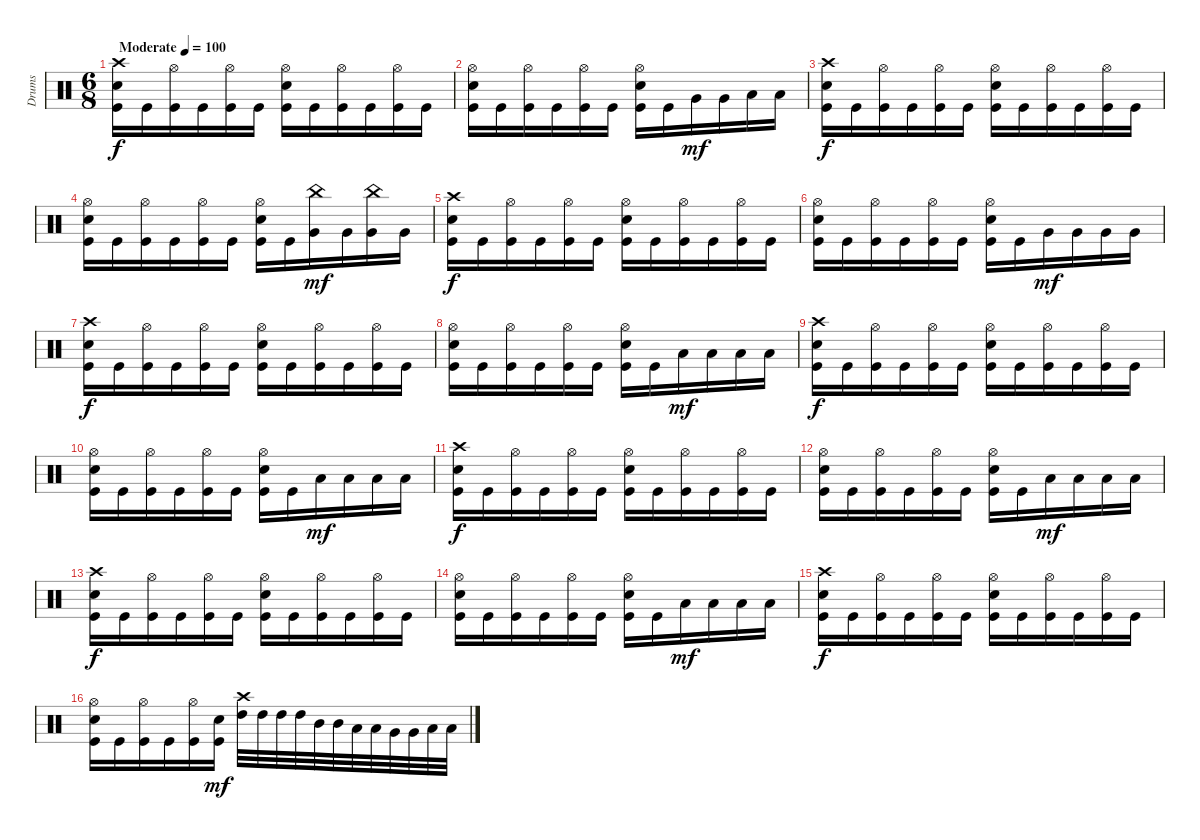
\track ("Drums" "Drums") {instrument percussion}
\staff {score}
\articulation defaults
\ts (6 8)
\tempo (100 "Moderate")
\clef neutral
\ks c
("Crash high (hit)" "Electric Snare (hit)" "Kick (hit)").16{dy f} "Kick (hit)".16 ("Hi-Hat (open)" "Kick (hit)").16 "Kick (hit)".16 ("Hi-Hat (open)" "Kick (hit)").16 "Kick (hit)".16 ("Hi-Hat (open)" "Electric Snare (hit)" "Kick (hit)").16 "Kick (hit)".16 ("Hi-Hat (open)" "Kick (hit)").16 "Kick (hit)".16 ("Hi-Hat (open)" "Kick (hit)").16 "Kick (hit)".16 |
("Hi-Hat (open)" "Electric Snare (hit)" "Kick (hit)").16 "Kick (hit)".16 ("Hi-Hat (open)" "Kick (hit)").16 "Kick (hit)".16 ("Hi-Hat (open)" "Kick (hit)").16 "Kick (hit)".16 ("Hi-Hat (open)" "Electric Snare (hit)" "Kick (hit)").16 "Kick (hit)".16 "Very Low Tom (hit)".16{dy mf} "Very Low Tom (hit)".16 "Low Floor Tom (hit)".16 "Low Floor Tom (hit)".16 |
("Crash high (hit)" "Electric Snare (hit)" "Kick (hit)").16{dy f} "Kick (hit)".16 ("Hi-Hat (open)" "Kick (hit)").16 "Kick (hit)".16 ("Hi-Hat (open)" "Kick (hit)").16 "Kick (hit)".16 ("Hi-Hat (open)" "Electric Snare (hit)" "Kick (hit)").16 "Kick (hit)".16 ("Hi-Hat (open)" "Kick (hit)").16 "Kick (hit)".16 ("Hi-Hat (open)" "Kick (hit)").16 "Kick (hit)".16 |
("Hi-Hat (open)" "Electric Snare (hit)" "Kick (hit)").16 "Kick (hit)".16 ("Hi-Hat (open)" "Kick (hit)").16 "Kick (hit)".16 ("Hi-Hat (open)" "Kick (hit)").16 "Kick (hit)".16 ("Hi-Hat (open)" "Electric Snare (hit)" "Kick (hit)").16 "Kick (hit)".16 ("China (hit)" "Very Low Tom (hit)").16{dy mf} "Very Low Tom (hit)".16 ("China (hit)" "Very Low Tom (hit)").16 "Very Low Tom (hit)".16 |
("Crash high (hit)" "Electric Snare (hit)" "Kick (hit)").16{dy f} "Kick (hit)".16 ("Hi-Hat (open)" "Kick (hit)").16 "Kick (hit)".16 ("Hi-Hat (open)" "Kick (hit)").16 "Kick (hit)".16 ("Hi-Hat (open)" "Electric Snare (hit)" "Kick (hit)").16 "Kick (hit)".16 ("Hi-Hat (open)" "Kick (hit)").16 "Kick (hit)".16 ("Hi-Hat (open)" "Kick (hit)").16 "Kick (hit)".16 |
("Hi-Hat (open)" "Electric Snare (hit)" "Kick (hit)").16 "Kick (hit)".16 ("Hi-Hat (open)" "Kick (hit)").16 "Kick (hit)".16 ("Hi-Hat (open)" "Kick (hit)").16 "Kick (hit)".16 ("Hi-Hat (open)" "Electric Snare (hit)" "Kick (hit)").16 "Kick (hit)".16 "Very Low Tom (hit)".16{dy mf} "Very Low Tom (hit)".16 "Very Low Tom (hit)".16 "Very Low Tom (hit)".16 |
("Crash high (hit)" "Electric Snare (hit)" "Kick (hit)").16{dy f} "Kick (hit)".16 ("Hi-Hat (open)" "Kick (hit)").16 "Kick (hit)".16 ("Hi-Hat (open)" "Kick (hit)").16 "Kick (hit)".16 ("Hi-Hat (open)" "Electric Snare (hit)" "Kick (hit)").16 "Kick (hit)".16 ("Hi-Hat (open)" "Kick (hit)").16 "Kick (hit)".16 ("Hi-Hat (open)" "Kick (hit)").16 "Kick (hit)".16 |
("Hi-Hat (open)" "Electric Snare (hit)" "Kick (hit)").16 "Kick (hit)".16 ("Hi-Hat (open)" "Kick (hit)").16 "Kick (hit)".16 ("Hi-Hat (open)" "Kick (hit)").16 "Kick (hit)".16 ("Hi-Hat (open)" "Electric Snare (hit)" "Kick (hit)").16 "Kick (hit)".16 "Low Floor Tom (hit)".16{dy mf} "Low Floor Tom (hit)".16 "Low Floor Tom (hit)".16 "Low Floor Tom (hit)".16 |
("Crash high (hit)" "Electric Snare (hit)" "Kick (hit)").16{dy f} "Kick (hit)".16 ("Hi-Hat (open)" "Kick (hit)").16 "Kick (hit)".16 ("Hi-Hat (open)" "Kick (hit)").16 "Kick (hit)".16 ("Hi-Hat (open)" "Electric Snare (hit)" "Kick (hit)").16 "Kick (hit)".16 ("Hi-Hat (open)" "Kick (hit)").16 "Kick (hit)".16 ("Hi-Hat (open)" "Kick (hit)").16 "Kick (hit)".16 |
("Hi-Hat (open)" "Electric Snare (hit)" "Kick (hit)").16 "Kick (hit)".16 ("Hi-Hat (open)" "Kick (hit)").16 "Kick (hit)".16 ("Hi-Hat (open)" "Kick (hit)").16 "Kick (hit)".16 ("Hi-Hat (open)" "Electric Snare (hit)" "Kick (hit)").16 "Kick (hit)".16 "Low Floor Tom (hit)".16{dy mf} "Low Floor Tom (hit)".16 "Low Floor Tom (hit)".16 "Low Floor Tom (hit)".16 |
("Crash high (hit)" "Electric Snare (hit)" "Kick (hit)").16{dy f} "Kick (hit)".16 ("Hi-Hat (open)" "Kick (hit)").16 "Kick (hit)".16 ("Hi-Hat (open)" "Kick (hit)").16 "Kick (hit)".16 ("Hi-Hat (open)" "Electric Snare (hit)" "Kick (hit)").16 "Kick (hit)".16 ("Hi-Hat (open)" "Kick (hit)").16 "Kick (hit)".16 ("Hi-Hat (open)" "Kick (hit)").16 "Kick (hit)".16 |
("Hi-Hat (open)" "Electric Snare (hit)" "Kick (hit)").16 "Kick (hit)".16 ("Hi-Hat (open)" "Kick (hit)").16 "Kick (hit)".16 ("Hi-Hat (open)" "Kick (hit)").16 "Kick (hit)".16 ("Hi-Hat (open)" "Electric Snare (hit)" "Kick (hit)").16 "Kick (hit)".16 "Low Floor Tom (hit)".16{dy mf} "Low Floor Tom (hit)".16 "Low Floor Tom (hit)".16 "Low Floor Tom (hit)".16 |
("Crash high (hit)" "Electric Snare (hit)" "Kick (hit)").16{dy f} "Kick (hit)".16 ("Hi-Hat (open)" "Kick (hit)").16 "Kick (hit)".16 ("Hi-Hat (open)" "Kick (hit)").16 "Kick (hit)".16 ("Hi-Hat (open)" "Electric Snare (hit)" "Kick (hit)").16 "Kick (hit)".16 ("Hi-Hat (open)" "Kick (hit)").16 "Kick (hit)".16 ("Hi-Hat (open)" "Kick (hit)").16 "Kick (hit)".16 |
("Hi-Hat (open)" "Electric Snare (hit)" "Kick (hit)").16 "Kick (hit)".16 ("Hi-Hat (open)" "Kick (hit)").16 "Kick (hit)".16 ("Hi-Hat (open)" "Kick (hit)").16 "Kick (hit)".16 ("Hi-Hat (open)" "Electric Snare (hit)" "Kick (hit)").16 "Kick (hit)".16 "Low Floor Tom (hit)".16{dy mf} "Low Floor Tom (hit)".16 "Low Floor Tom (hit)".16 "Low Floor Tom (hit)".16 |
("Crash high (hit)" "Electric Snare (hit)" "Kick (hit)").16{dy f} "Kick (hit)".16 ("Hi-Hat (open)" "Kick (hit)").16 "Kick (hit)".16 ("Hi-Hat (open)" "Kick (hit)").16 "Kick (hit)".16 ("Hi-Hat (open)" "Electric Snare (hit)" "Kick (hit)").16 "Kick (hit)".16 ("Hi-Hat (open)" "Kick (hit)").16 "Kick (hit)".16 ("Hi-Hat (open)" "Kick (hit)").16 "Kick (hit)".16 |
("Hi-Hat (open)" "Electric Snare (hit)" "Kick (hit)").16 "Kick (hit)".16 ("Hi-Hat (open)" "Kick (hit)").16 "Kick (hit)".16 ("Hi-Hat (open)" "Kick (hit)").16 ("Electric Snare (hit)" "Kick (hit)").16{dy mf} ("Crash high (hit)" "High Tom (hit)").32 "High Tom (hit)".32 "High Tom (hit)".32 "High Tom (hit)".32 "Mid Tom (hit)".32 "Mid Tom (hit)".32 "Low Tom (hit)".32 "Low Tom (hit)".32 "Very Low Tom (hit)".32 "Very Low Tom (hit)".32 "Low Floor Tom (hit)".32 "Low Floor Tom (hit)".32
